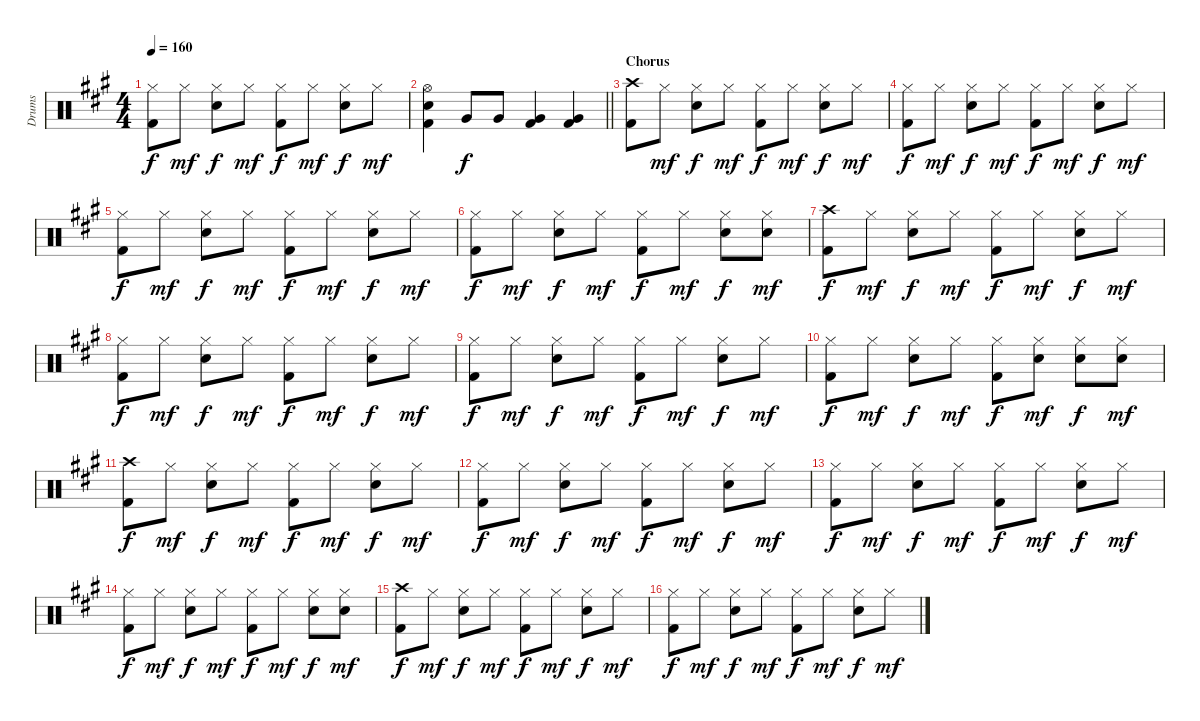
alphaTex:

\track ("Drums" "Drums") {instrument percussion}
\staff {score}
\articulation defaults
\ts (4 4)
\tempo 160
\clef neutral
\ks a
("Hi-Hat (closed)" "Kick (hit) 2").8{dy f} "Hi-Hat (closed)".8{dy mf} ("Hi-Hat (closed)" "Electric Snare (hit)").8{dy f} "Hi-Hat (closed)".8{dy mf} ("Hi-Hat (closed)" "Kick (hit) 2").8{dy f} "Hi-Hat (closed)".8{dy mf} ("Hi-Hat (closed)" "Electric Snare (hit)").8{dy f} "Hi-Hat (closed)".8{dy mf} |
\barLineRight lightlight
("Hi-Hat (open)" "Electric Snare (hit)" "Kick (hit) 2").4 "Very Low Tom (hit)".8{dy f} "Very Low Tom (hit)".8 ("Very Low Tom (hit)" "Kick (hit) 2").4 ("Very Low Tom (hit)" "Kick (hit) 2").4 |
\section ("" "Chorus")
("Crash high (hit)" "Kick (hit) 2").8 "Hi-Hat (closed)".8{dy mf} ("Hi-Hat (closed)" "Electric Snare (hit)").8{dy f} "Hi-Hat (closed)".8{dy mf} ("Hi-Hat (closed)" "Kick (hit) 2").8{dy f} "Hi-Hat (closed)".8{dy mf} ("Hi-Hat (closed)" "Electric Snare (hit)").8{dy f} "Hi-Hat (closed)".8{dy mf} |
("Hi-Hat (closed)" "Kick (hit) 2").8{dy f} "Hi-Hat (closed)".8{dy mf} ("Hi-Hat (closed)" "Electric Snare (hit)").8{dy f} "Hi-Hat (closed)".8{dy mf} ("Hi-Hat (closed)" "Kick (hit) 2").8{dy f} "Hi-Hat (closed)".8{dy mf} ("Hi-Hat (closed)" "Electric Snare (hit)").8{dy f} "Hi-Hat (closed)".8{dy mf} |
("Hi-Hat (closed)" "Kick (hit) 2").8{dy f} "Hi-Hat (closed)".8{dy mf} ("Hi-Hat (closed)" "Electric Snare (hit)").8{dy f} "Hi-Hat (closed)".8{dy mf} ("Hi-Hat (closed)" "Kick (hit) 2").8{dy f} "Hi-Hat (closed)".8{dy mf} ("Hi-Hat (closed)" "Electric Snare (hit)").8{dy f} "Hi-Hat (closed)".8{dy mf} |
("Hi-Hat (closed)" "Kick (hit) 2").8{dy f} "Hi-Hat (closed)".8{dy mf} ("Hi-Hat (closed)" "Electric Snare (hit)").8{dy f} "Hi-Hat (closed)".8{dy mf} ("Hi-Hat (closed)" "Kick (hit) 2").8{dy f} "Hi-Hat (closed)".8{dy mf} ("Hi-Hat (closed)" "Electric Snare (hit)").8{dy f} ("Hi-Hat (closed)" "Electric Snare (hit)").8{dy mf} |
("Crash high (hit)" "Kick (hit) 2").8{dy f} "Hi-Hat (closed)".8{dy mf} ("Hi-Hat (closed)" "Electric Snare (hit)").8{dy f} "Hi-Hat (closed)".8{dy mf} ("Hi-Hat (closed)" "Kick (hit) 2").8{dy f} "Hi-Hat (closed)".8{dy mf} ("Hi-Hat (closed)" "Electric Snare (hit)").8{dy f} "Hi-Hat (closed)".8{dy mf} |
("Hi-Hat (closed)" "Kick (hit) 2").8{dy f} "Hi-Hat (closed)".8{dy mf} ("Hi-Hat (closed)" "Electric Snare (hit)").8{dy f} "Hi-Hat (closed)".8{dy mf} ("Hi-Hat (closed)" "Kick (hit) 2").8{dy f} "Hi-Hat (closed)".8{dy mf} ("Hi-Hat (closed)" "Electric Snare (hit)").8{dy f} "Hi-Hat (closed)".8{dy mf} |
("Hi-Hat (closed)" "Kick (hit) 2").8{dy f} "Hi-Hat (closed)".8{dy mf} ("Hi-Hat (closed)" "Electric Snare (hit)").8{dy f} "Hi-Hat (closed)".8{dy mf} ("Hi-Hat (closed)" "Kick (hit) 2").8{dy f} "Hi-Hat (closed)".8{dy mf} ("Hi-Hat (closed)" "Electric Snare (hit)").8{dy f} "Hi-Hat (closed)".8{dy mf} |
("Hi-Hat (closed)" "Kick (hit) 2").8{dy f} "Hi-Hat (closed)".8{dy mf} ("Hi-Hat (closed)" "Electric Snare (hit)").8{dy f} "Hi-Hat (closed)".8{dy mf} ("Hi-Hat (closed)" "Kick (hit) 2").8{dy f} ("Hi-Hat (closed)" "Electric Snare (hit)").8{dy mf} ("Hi-Hat (closed)" "Electric Snare (hit)").8{dy f} ("Hi-Hat (closed)" "Electric Snare (hit)").8{dy mf} |
("Crash high (hit)" "Kick (hit) 2").8{dy f} "Hi-Hat (closed)".8{dy mf} ("Hi-Hat (closed)" "Electric Snare (hit)").8{dy f} "Hi-Hat (closed)".8{dy mf} ("Hi-Hat (closed)" "Kick (hit) 2").8{dy f} "Hi-Hat (closed)".8{dy mf} ("Hi-Hat (closed)" "Electric Snare (hit)").8{dy f} "Hi-Hat (closed)".8{dy mf} |
("Hi-Hat (closed)" "Kick (hit) 2").8{dy f} "Hi-Hat (closed)".8{dy mf} ("Hi-Hat (closed)" "Electric Snare (hit)").8{dy f} "Hi-Hat (closed)".8{dy mf} ("Hi-Hat (closed)" "Kick (hit) 2").8{dy f} "Hi-Hat (closed)".8{dy mf} ("Hi-Hat (closed)" "Electric Snare (hit)").8{dy f} "Hi-Hat (closed)".8{dy mf} |
("Hi-Hat (closed)" "Kick (hit) 2").8{dy f} "Hi-Hat (closed)".8{dy mf} ("Hi-Hat (closed)" "Electric Snare (hit)").8{dy f} "Hi-Hat (closed)".8{dy mf} ("Hi-Hat (closed)" "Kick (hit) 2").8{dy f} "Hi-Hat (closed)".8{dy mf} ("Hi-Hat (closed)" "Electric Snare (hit)").8{dy f} "Hi-Hat (closed)".8{dy mf} |
("Hi-Hat (closed)" "Kick (hit) 2").8{dy f} "Hi-Hat (closed)".8{dy mf} ("Hi-Hat (closed)" "Electric Snare (hit)").8{dy f} "Hi-Hat (closed)".8{dy mf} ("Hi-Hat (closed)" "Kick (hit) 2").8{dy f} "Hi-Hat (closed)".8{dy mf} ("Hi-Hat (closed)" "Electric Snare (hit)").8{dy f} ("Hi-Hat (closed)" "Electric Snare (hit)").8{dy mf} |
("Crash high (hit)" "Kick (hit) 2").8{dy f} "Hi-Hat (closed)".8{dy mf} ("Hi-Hat (closed)" "Electric Snare (hit)").8{dy f} "Hi-Hat (closed)".8{dy mf} ("Hi-Hat (closed)" "Kick (hit) 2").8{dy f} "Hi-Hat (closed)".8{dy mf} ("Hi-Hat (closed)" "Electric Snare (hit)").8{dy f} "Hi-Hat (closed)".8{dy mf} |
("Hi-Hat (closed)" "Kick (hit) 2").8{dy f} "Hi-Hat (closed)".8{dy mf} ("Hi-Hat (closed)" "Electric Snare (hit)").8{dy f} "Hi-Hat (closed)".8{dy mf} ("Hi-Hat (closed)" "Kick (hit) 2").8{dy f} "Hi-Hat (closed)".8{dy mf} ("Hi-Hat (closed)" "Electric Snare (hit)").8{dy f} "Hi-Hat (closed)".8{dy mf}
